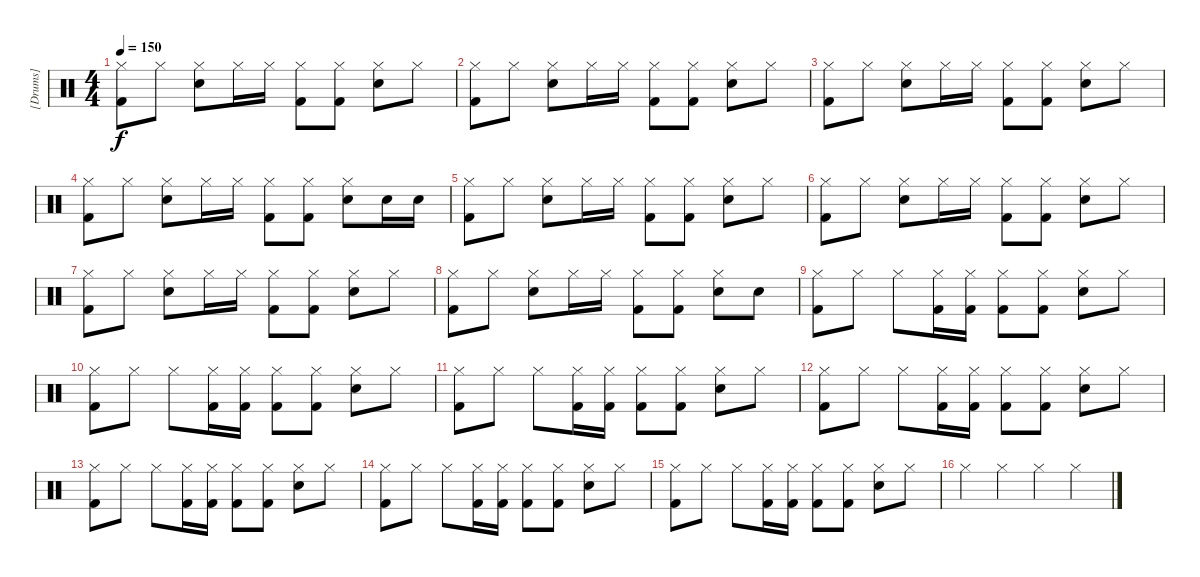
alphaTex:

\track ("[Drums]" "[Drums]") {instrument percussion}
\staff {score}
\articulation defaults
\ts (4 4)
\tempo 150
\clef neutral
\ks c
("Hi-Hat (closed)" "Kick (hit) 2").8{dy f} "Hi-Hat (closed)".8 ("Hi-Hat (closed)" "Electric Snare (hit)").8 "Hi-Hat (closed)".16 "Hi-Hat (closed)".16 ("Hi-Hat (closed)" "Kick (hit) 2").8 ("Hi-Hat (closed)" "Kick (hit) 2").8 ("Hi-Hat (closed)" "Electric Snare (hit)").8 "Hi-Hat (closed)".8 |
("Hi-Hat (closed)" "Kick (hit) 2").8 "Hi-Hat (closed)".8 ("Hi-Hat (closed)" "Electric Snare (hit)").8 "Hi-Hat (closed)".16 "Hi-Hat (closed)".16 ("Hi-Hat (closed)" "Kick (hit) 2").8 ("Hi-Hat (closed)" "Kick (hit) 2").8 ("Hi-Hat (closed)" "Electric Snare (hit)").8 "Hi-Hat (closed)".8 |
("Hi-Hat (closed)" "Kick (hit) 2").8 "Hi-Hat (closed)".8 ("Hi-Hat (closed)" "Electric Snare (hit)").8 "Hi-Hat (closed)".16 "Hi-Hat (closed)".16 ("Hi-Hat (closed)" "Kick (hit) 2").8 ("Hi-Hat (closed)" "Kick (hit) 2").8 ("Hi-Hat (closed)" "Electric Snare (hit)").8 "Hi-Hat (closed)".8 |
("Hi-Hat (closed)" "Kick (hit) 2").8 "Hi-Hat (closed)".8 ("Hi-Hat (closed)" "Electric Snare (hit)").8 "Hi-Hat (closed)".16 "Hi-Hat (closed)".16 ("Hi-Hat (closed)" "Kick (hit) 2").8 ("Hi-Hat (closed)" "Kick (hit) 2").8 ("Hi-Hat (closed)" "Electric Snare (hit)").8 "Electric Snare (hit)".16 "Electric Snare (hit)".16 |
("Hi-Hat (closed)" "Kick (hit) 2").8 "Hi-Hat (closed)".8 ("Hi-Hat (closed)" "Electric Snare (hit)").8 "Hi-Hat (closed)".16 "Hi-Hat (closed)".16 ("Hi-Hat (closed)" "Kick (hit) 2").8 ("Hi-Hat (closed)" "Kick (hit) 2").8 ("Hi-Hat (closed)" "Electric Snare (hit)").8 "Hi-Hat (closed)".8 |
("Hi-Hat (closed)" "Kick (hit) 2").8 "Hi-Hat (closed)".8 ("Hi-Hat (closed)" "Electric Snare (hit)").8 "Hi-Hat (closed)".16 "Hi-Hat (closed)".16 ("Hi-Hat (closed)" "Kick (hit) 2").8 ("Hi-Hat (closed)" "Kick (hit) 2").8 ("Hi-Hat (closed)" "Electric Snare (hit)").8 "Hi-Hat (closed)".8 |
("Hi-Hat (closed)" "Kick (hit) 2").8 "Hi-Hat (closed)".8 ("Hi-Hat (closed)" "Electric Snare (hit)").8 "Hi-Hat (closed)".16 "Hi-Hat (closed)".16 ("Hi-Hat (closed)" "Kick (hit) 2").8 ("Hi-Hat (closed)" "Kick (hit) 2").8 ("Hi-Hat (closed)" "Electric Snare (hit)").8 "Hi-Hat (closed)".8 |
("Hi-Hat (closed)" "Kick (hit) 2").8 "Hi-Hat (closed)".8 ("Hi-Hat (closed)" "Electric Snare (hit)").8 "Hi-Hat (closed)".16 "Hi-Hat (closed)".16 ("Hi-Hat (closed)" "Kick (hit) 2").8 ("Hi-Hat (closed)" "Kick (hit) 2").8 ("Hi-Hat (closed)" "Electric Snare (hit)").8 "Electric Snare (hit)".8 |
("Hi-Hat (closed)" "Kick (hit) 2").8 "Hi-Hat (closed)".8 "Hi-Hat (closed)".8 ("Hi-Hat (closed)" "Kick (hit) 2").16 ("Hi-Hat (closed)" "Kick (hit) 2").16 ("Hi-Hat (closed)" "Kick (hit) 2").8 ("Hi-Hat (closed)" "Kick (hit) 2").8 ("Hi-Hat (closed)" "Electric Snare (hit)").8 "Hi-Hat (closed)".8 |
("Hi-Hat (closed)" "Kick (hit) 2").8 "Hi-Hat (closed)".8 "Hi-Hat (closed)".8 ("Hi-Hat (closed)" "Kick (hit) 2").16 ("Hi-Hat (closed)" "Kick (hit) 2").16 ("Hi-Hat (closed)" "Kick (hit) 2").8 ("Hi-Hat (closed)" "Kick (hit) 2").8 ("Hi-Hat (closed)" "Electric Snare (hit)").8 "Hi-Hat (closed)".8 |
("Hi-Hat (closed)" "Kick (hit) 2").8 "Hi-Hat (closed)".8 "Hi-Hat (closed)".8 ("Hi-Hat (closed)" "Kick (hit) 2").16 ("Hi-Hat (closed)" "Kick (hit) 2").16 ("Hi-Hat (closed)" "Kick (hit) 2").8 ("Hi-Hat (closed)" "Kick (hit) 2").8 ("Hi-Hat (closed)" "Electric Snare (hit)").8 "Hi-Hat (closed)".8 |
("Hi-Hat (closed)" "Kick (hit) 2").8 "Hi-Hat (closed)".8 "Hi-Hat (closed)".8 ("Hi-Hat (closed)" "Kick (hit) 2").16 ("Hi-Hat (closed)" "Kick (hit) 2").16 ("Hi-Hat (closed)" "Kick (hit) 2").8 ("Hi-Hat (closed)" "Kick (hit) 2").8 ("Hi-Hat (closed)" "Electric Snare (hit)").8 "Hi-Hat (closed)".8 |
("Hi-Hat (closed)" "Kick (hit) 2").8 "Hi-Hat (closed)".8 "Hi-Hat (closed)".8 ("Hi-Hat (closed)" "Kick (hit) 2").16 ("Hi-Hat (closed)" "Kick (hit) 2").16 ("Hi-Hat (closed)" "Kick (hit) 2").8 ("Hi-Hat (closed)" "Kick (hit) 2").8 ("Hi-Hat (closed)" "Electric Snare (hit)").8 "Hi-Hat (closed)".8 |
("Hi-Hat (closed)" "Kick (hit) 2").8 "Hi-Hat (closed)".8 "Hi-Hat (closed)".8 ("Hi-Hat (closed)" "Kick (hit) 2").16 ("Hi-Hat (closed)" "Kick (hit) 2").16 ("Hi-Hat (closed)" "Kick (hit) 2").8 ("Hi-Hat (closed)" "Kick (hit) 2").8 ("Hi-Hat (closed)" "Electric Snare (hit)").8 "Hi-Hat (closed)".8 |
("Hi-Hat (closed)" "Kick (hit) 2").8 "Hi-Hat (closed)".8 "Hi-Hat (closed)".8 ("Hi-Hat (closed)" "Kick (hit) 2").16 ("Hi-Hat (closed)" "Kick (hit) 2").16 ("Hi-Hat (closed)" "Kick (hit) 2").8 ("Hi-Hat (closed)" "Kick (hit) 2").8 ("Hi-Hat (closed)" "Electric Snare (hit)").8 "Hi-Hat (closed)".8 |
"Hi-Hat (closed)".4 "Hi-Hat (closed)".4 "Hi-Hat (closed)".4 "Hi-Hat (closed)".4
